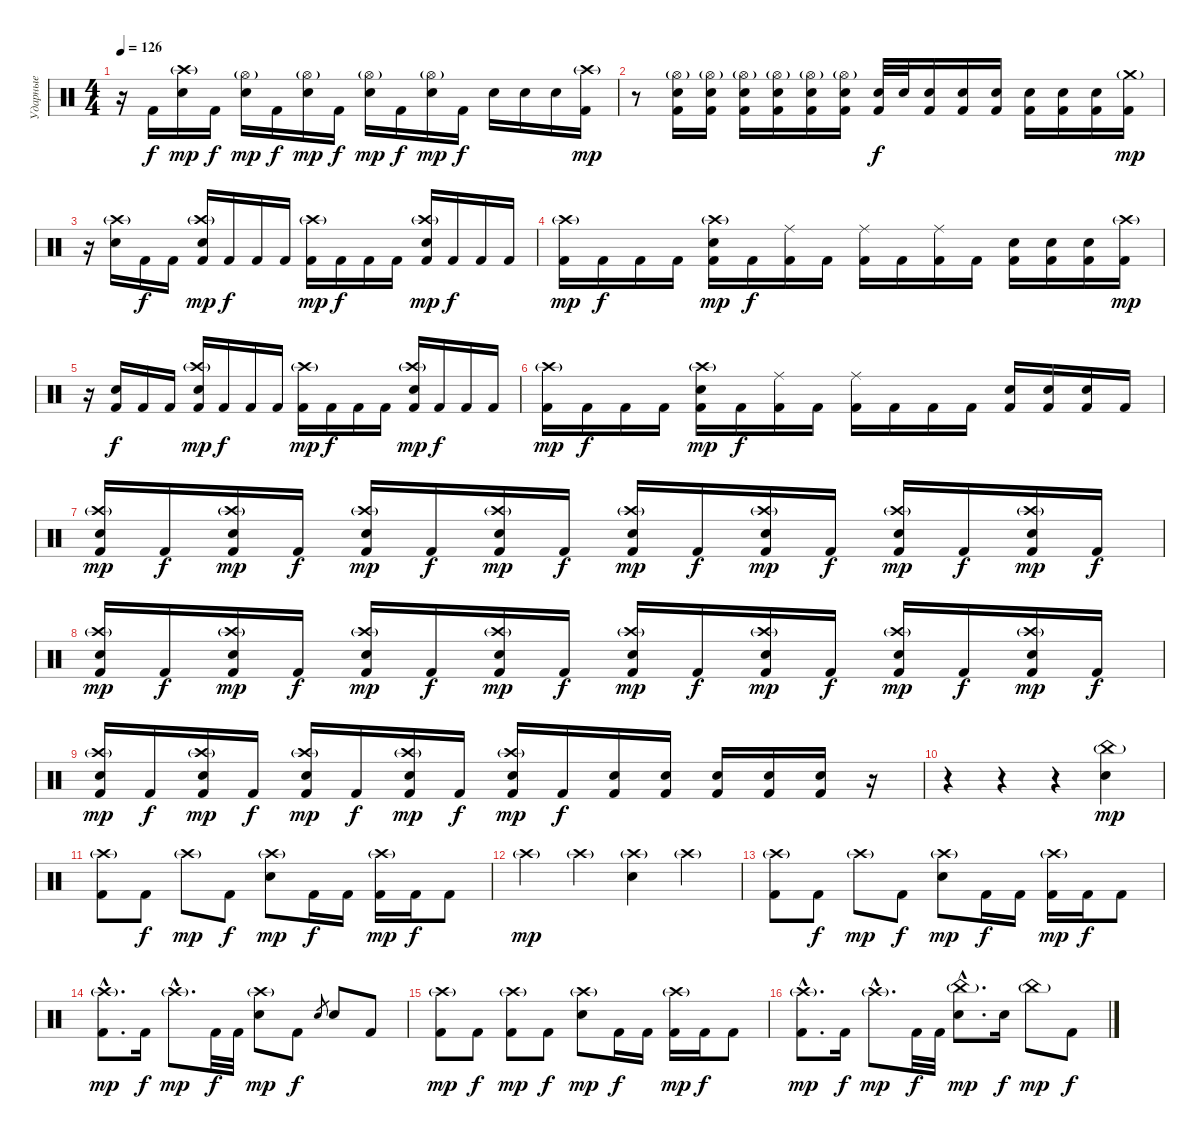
\track ("Ударные" "Ударные") {instrument percussion}
\staff {score}
\articulation defaults
\ts (4 4)
\tempo 126
\clef neutral
\ks c
r.16{dy mp} "Kick (hit) 2".16{dy f} ("Crash high (hit)"{g} "Electric Snare (hit)").16{dy mp} "Kick (hit) 2".16{dy f} ("Hi-Hat (open)"{g} "Electric Snare (hit)").16{dy mp} "Kick (hit) 2".16{dy f} ("Hi-Hat (open)"{g} "Electric Snare (hit)").16{dy mp} "Kick (hit) 2".16{dy f} ("Hi-Hat (open)"{g} "Electric Snare (hit)").16{dy mp} "Kick (hit) 2".16{dy f} ("Hi-Hat (open)"{g} "Electric Snare (hit)").16{dy mp} "Kick (hit) 2".16{dy f} "Electric Snare (hit)".16 "Electric Snare (hit)".16 "Electric Snare (hit)".16 ("Crash high (hit)"{g} "Kick (hit) 2").16{dy mp} |
r.8 ("Hi-Hat (open)"{g} "Electric Snare (hit)" "Kick (hit) 2").16 ("Hi-Hat (open)"{g} "Electric Snare (hit)" "Kick (hit) 2").16 ("Hi-Hat (open)"{g} "Electric Snare (hit)" "Kick (hit) 2").16 ("Hi-Hat (open)"{g} "Electric Snare (hit)" "Kick (hit) 2").16 ("Hi-Hat (open)"{g} "Electric Snare (hit)" "Kick (hit) 2").16 ("Hi-Hat (open)"{g} "Electric Snare (hit)" "Kick (hit) 2").16 ("Electric Snare (hit)" "Kick (hit) 2").32{dy f} "Electric Snare (hit)".32 ("Electric Snare (hit)" "Kick (hit) 2").16 ("Electric Snare (hit)" "Kick (hit) 2").16 ("Electric Snare (hit)" "Kick (hit) 2").16 ("Electric Snare (hit)" "Kick (hit) 2").16 ("Electric Snare (hit)" "Kick (hit) 2").16 ("Electric Snare (hit)" "Kick (hit) 2").16 ("Crash medium (hit)"{g} "Kick (hit) 2").16{dy mp} |
r.16 ("Crash high (hit)"{g} "Electric Snare (hit)").16 "Kick (hit) 2".16{dy f} "Kick (hit) 2".16 ("Crash high (hit)"{g} "Electric Snare (hit)" "Kick (hit) 2").16{dy mp} "Kick (hit) 2".16{dy f} "Kick (hit) 2".16 "Kick (hit) 2".16 ("Crash high (hit)"{g} "Kick (hit) 2").16{dy mp} "Kick (hit) 2".16{dy f} "Kick (hit) 2".16 "Kick (hit) 2".16 ("Crash high (hit)"{g} "Electric Snare (hit)" "Kick (hit) 2").16{dy mp} "Kick (hit) 2".16{dy f} "Kick (hit) 2".16 "Kick (hit) 2".16 |
("Crash high (hit)"{g} "Kick (hit) 2").16{dy mp} "Kick (hit) 2".16{dy f} "Kick (hit) 2".16 "Kick (hit) 2".16 ("Crash high (hit)"{g} "Electric Snare (hit)" "Kick (hit) 2").16{dy mp} "Kick (hit) 2".16{dy f} ("Ride (middle)" "Kick (hit) 2").16 "Kick (hit) 2".16 ("Ride (middle)" "Kick (hit) 2").16 "Kick (hit) 2".16 ("Ride (middle)" "Kick (hit) 2").16 "Kick (hit) 2".16 ("Electric Snare (hit)" "Kick (hit) 2").16 ("Electric Snare (hit)" "Kick (hit) 2").16 ("Electric Snare (hit)" "Kick (hit) 2").16 ("Crash high (hit)"{g} "Kick (hit) 2").16{dy mp} |
r.16 ("Electric Snare (hit)" "Kick (hit) 2").16{dy f} "Kick (hit) 2".16 "Kick (hit) 2".16 ("Crash high (hit)"{g} "Electric Snare (hit)" "Kick (hit) 2").16{dy mp} "Kick (hit) 2".16{dy f} "Kick (hit) 2".16 "Kick (hit) 2".16 ("Crash high (hit)"{g} "Kick (hit) 2").16{dy mp} "Kick (hit) 2".16{dy f} "Kick (hit) 2".16 "Kick (hit) 2".16 ("Crash high (hit)"{g} "Electric Snare (hit)" "Kick (hit) 2").16{dy mp} "Kick (hit) 2".16{dy f} "Kick (hit) 2".16 "Kick (hit) 2".16 |
("Crash high (hit)"{g} "Kick (hit) 2").16{dy mp} "Kick (hit) 2".16{dy f} "Kick (hit) 2".16 "Kick (hit) 2".16 ("Crash high (hit)"{g} "Electric Snare (hit)" "Kick (hit) 2").16{dy mp} "Kick (hit) 2".16{dy f} ("Ride (middle)" "Kick (hit) 2").16 "Kick (hit) 2".16 ("Ride (middle)" "Kick (hit) 2").16 "Kick (hit) 2".16 "Kick (hit) 2".16 "Kick (hit) 2".16 ("Electric Snare (hit)" "Kick (hit) 2").16 ("Electric Snare (hit)" "Kick (hit) 2").16 ("Electric Snare (hit)" "Kick (hit) 2").16 "Kick (hit) 2".16 |
("Crash high (hit)"{g} "Electric Snare (hit)" "Kick (hit) 2").16{dy mp} "Kick (hit) 2".16{dy f} ("Crash high (hit)"{g} "Electric Snare (hit)" "Kick (hit) 2").16{dy mp} "Kick (hit) 2".16{dy f} ("Crash high (hit)"{g} "Electric Snare (hit)" "Kick (hit) 2").16{dy mp} "Kick (hit) 2".16{dy f} ("Crash high (hit)"{g} "Electric Snare (hit)" "Kick (hit) 2").16{dy mp} "Kick (hit) 2".16{dy f} ("Crash high (hit)"{g} "Electric Snare (hit)" "Kick (hit) 2").16{dy mp} "Kick (hit) 2".16{dy f} ("Crash high (hit)"{g} "Electric Snare (hit)" "Kick (hit) 2").16{dy mp} "Kick (hit) 2".16{dy f} ("Crash high (hit)"{g} "Electric Snare (hit)" "Kick (hit) 2").16{dy mp} "Kick (hit) 2".16{dy f} ("Crash high (hit)"{g} "Electric Snare (hit)" "Kick (hit) 2").16{dy mp} "Kick (hit) 2".16{dy f} |
("Crash high (hit)"{g} "Electric Snare (hit)" "Kick (hit) 2").16{dy mp} "Kick (hit) 2".16{dy f} ("Crash high (hit)"{g} "Electric Snare (hit)" "Kick (hit) 2").16{dy mp} "Kick (hit) 2".16{dy f} ("Crash high (hit)"{g} "Electric Snare (hit)" "Kick (hit) 2").16{dy mp} "Kick (hit) 2".16{dy f} ("Crash high (hit)"{g} "Electric Snare (hit)" "Kick (hit) 2").16{dy mp} "Kick (hit) 2".16{dy f} ("Crash high (hit)"{g} "Electric Snare (hit)" "Kick (hit) 2").16{dy mp} "Kick (hit) 2".16{dy f} ("Crash high (hit)"{g} "Electric Snare (hit)" "Kick (hit) 2").16{dy mp} "Kick (hit) 2".16{dy f} ("Crash high (hit)"{g} "Electric Snare (hit)" "Kick (hit) 2").16{dy mp} "Kick (hit) 2".16{dy f} ("Crash high (hit)"{g} "Electric Snare (hit)" "Kick (hit) 2").16{dy mp} "Kick (hit) 2".16{dy f} |
("Crash high (hit)"{g} "Electric Snare (hit)" "Kick (hit) 2").16{dy mp} "Kick (hit) 2".16{dy f} ("Crash high (hit)"{g} "Electric Snare (hit)" "Kick (hit) 2").16{dy mp} "Kick (hit) 2".16{dy f} ("Crash high (hit)"{g} "Electric Snare (hit)" "Kick (hit) 2").16{dy mp} "Kick (hit) 2".16{dy f} ("Crash high (hit)"{g} "Electric Snare (hit)" "Kick (hit) 2").16{dy mp} "Kick (hit) 2".16{dy f} ("Crash high (hit)"{g} "Electric Snare (hit)" "Kick (hit) 2").16{dy mp} "Kick (hit) 2".16{dy f} ("Electric Snare (hit)" "Kick (hit) 2").16 ("Electric Snare (hit)" "Kick (hit) 2").16 ("Electric Snare (hit)" "Kick (hit) 2").16 ("Electric Snare (hit)" "Kick (hit) 2").16 ("Electric Snare (hit)" "Kick (hit) 2").16 r.16 |
r.4 r.4 r.4 ("China (hit)"{g} "Electric Snare (hit)").4{dy mp} |
("Crash high (hit)"{g} "Kick (hit) 2").8 "Kick (hit) 2".8{dy f} "Crash high (hit)"{g}.8{dy mp} "Kick (hit) 2".8{dy f} ("Crash high (hit)"{g} "Electric Snare (hit)").8{dy mp} "Kick (hit) 2".16{dy f} "Kick (hit) 2".16 ("Crash high (hit)"{g} "Kick (hit) 2").16{dy mp} "Kick (hit) 2".16{dy f} "Kick (hit) 2".8 |
"Crash high (hit)"{g}.4{dy mp} "Crash high (hit)"{g}.4 ("Crash high (hit)"{g} "Electric Snare (hit)").4 "Crash high (hit)"{g}.4 |
("Crash high (hit)"{g} "Kick (hit) 2").8 "Kick (hit) 2".8{dy f} "Crash high (hit)"{g}.8{dy mp} "Kick (hit) 2".8{dy f} ("Crash high (hit)"{g} "Electric Snare (hit)").8{dy mp} "Kick (hit) 2".16{dy f} "Kick (hit) 2".16 ("Crash high (hit)"{g} "Kick (hit) 2").16{dy mp} "Kick (hit) 2".16{dy f} "Kick (hit) 2".8 |
("Crash high (hit)"{g hac} "Kick (hit) 2"{hac}).8{d dy mp} "Kick (hit) 2".16{dy f} "Crash high (hit)"{g hac}.8{d dy mp} "Kick (hit) 2".32{dy f} "Kick (hit) 2".32 ("Crash high (hit)"{g} "Electric Snare (hit)").8{dy mp} "Kick (hit) 2".8{dy f} "Electric Snare (hit)".8{gr} "Electric Snare (hit)".8 "Kick (hit) 2".8 |
("Crash high (hit)"{g} "Kick (hit) 2").8{dy mp} "Kick (hit) 2".8{dy f} ("Crash high (hit)"{g} "Kick (hit) 2").8{dy mp} "Kick (hit) 2".8{dy f} ("Crash high (hit)"{g} "Electric Snare (hit)").8{dy mp} "Kick (hit) 2".16{dy f} "Kick (hit) 2".16 ("Crash high (hit)"{g} "Kick (hit) 2").16{dy mp} "Kick (hit) 2".16{dy f} "Kick (hit) 2".8 |
("Crash high (hit)"{g hac} "Kick (hit) 2"{hac}).8{d dy mp} "Kick (hit) 2".16{dy f} "Crash high (hit)"{g hac}.8{d dy mp} "Kick (hit) 2".32{dy f} "Kick (hit) 2".32 ("China (hit)"{g hac} "Electric Snare (hit)"{hac}).8{d dy mp} "Electric Snare (hit)".16{dy f} "China (hit)"{g}.8{dy mp} "Kick (hit) 2".8{dy f}
